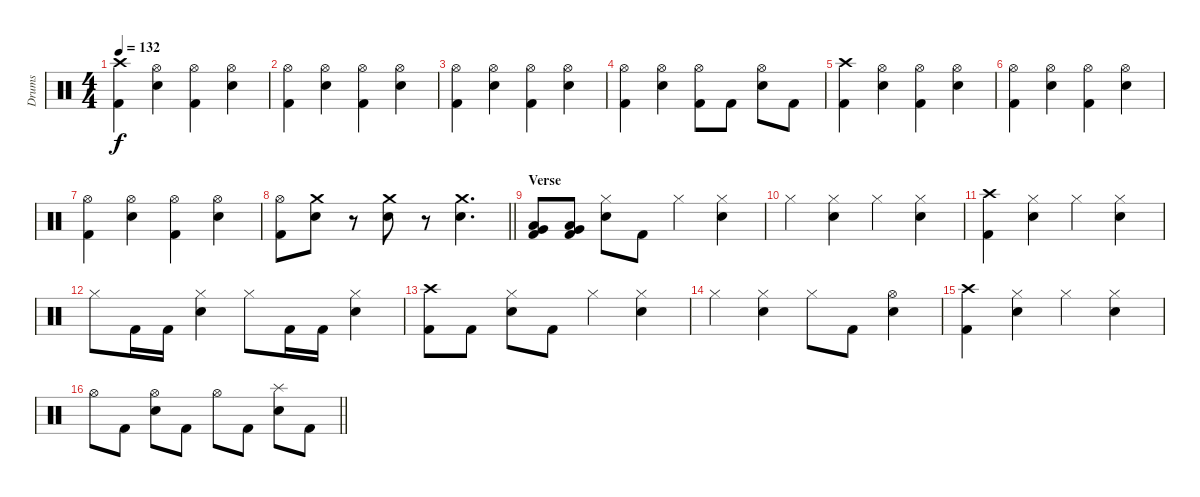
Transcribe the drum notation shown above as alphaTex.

\track ("Drums" "Drums") {instrument percussion}
\staff {score}
\articulation defaults
\ts (4 4)
\tempo 132
\clef neutral
\ks c
("Crash high (hit)" "Kick (hit) 2").4{dy f} ("Hi-Hat (open)" "Snare (hit) 2").4 ("Hi-Hat (open)" "Kick (hit) 2").4 ("Hi-Hat (open)" "Snare (hit) 2").4 |
("Hi-Hat (open)" "Kick (hit) 2").4 ("Hi-Hat (open)" "Snare (hit) 2").4 ("Hi-Hat (open)" "Kick (hit) 2").4 ("Hi-Hat (open)" "Snare (hit) 2").4 |
("Hi-Hat (open)" "Kick (hit) 2").4 ("Hi-Hat (open)" "Snare (hit) 2").4 ("Hi-Hat (open)" "Kick (hit) 2").4 ("Hi-Hat (open)" "Snare (hit) 2").4 |
("Hi-Hat (open)" "Kick (hit) 2").4 ("Hi-Hat (open)" "Snare (hit) 2").4 ("Hi-Hat (open)" "Kick (hit) 2").8 "Kick (hit) 2".8 ("Hi-Hat (open)" "Snare (hit) 2").8 "Kick (hit) 2".8 |
("Crash high (hit)" "Kick (hit) 2").4 ("Hi-Hat (open)" "Snare (hit) 2").4 ("Hi-Hat (open)" "Kick (hit) 2").4 ("Hi-Hat (open)" "Snare (hit) 2").4 |
("Hi-Hat (open)" "Kick (hit) 2").4 ("Hi-Hat (open)" "Snare (hit) 2").4 ("Hi-Hat (open)" "Kick (hit) 2").4 ("Hi-Hat (open)" "Snare (hit) 2").4 |
("Hi-Hat (open)" "Kick (hit) 2").4 ("Hi-Hat (open)" "Snare (hit) 2").4 ("Hi-Hat (open)" "Kick (hit) 2").4 ("Hi-Hat (open)" "Snare (hit) 2").4 |
\barLineRight lightlight
("Hi-Hat (open)" "Kick (hit) 2").8 ("Crash medium (hit)" "Snare (hit) 2").8 r.8 ("Crash medium (hit)" "Snare (hit) 2").8 r.8 ("Crash medium (hit)" "Snare (hit) 2").4{d} |
\section ("" "Verse")
("Very Low Tom (hit)" "Low Tom (hit)" "Kick (hit) 2").8 ("Very Low Tom (hit)" "Low Tom (hit)" "Kick (hit) 2").8 ("Hi-Hat (closed)" "Snare (hit) 2").8 "Kick (hit) 2".8 "Hi-Hat (closed)".4 ("Hi-Hat (closed)" "Snare (hit) 2").4 |
"Hi-Hat (closed)".4 ("Hi-Hat (closed)" "Snare (hit) 2").4 "Hi-Hat (closed)".4 ("Hi-Hat (closed)" "Snare (hit) 2").4 |
("Crash high (hit)" "Kick (hit) 2").4 ("Hi-Hat (closed)" "Snare (hit) 2").4 "Hi-Hat (closed)".4 ("Hi-Hat (closed)" "Snare (hit) 2").4 |
"Hi-Hat (closed)".8 "Kick (hit) 2".16 "Kick (hit) 2".16 ("Hi-Hat (closed)" "Snare (hit) 2").4 "Hi-Hat (closed)".8 "Kick (hit) 2".16 "Kick (hit) 2".16 ("Hi-Hat (closed)" "Snare (hit) 2").4 |
("Crash high (hit)" "Kick (hit) 2").8 "Kick (hit) 2".8 ("Hi-Hat (closed)" "Snare (hit) 2").8 "Kick (hit) 2".8 "Hi-Hat (closed)".4 ("Hi-Hat (closed)" "Snare (hit) 2").4 |
"Hi-Hat (closed)".4 ("Hi-Hat (closed)" "Snare (hit) 2").4 "Hi-Hat (closed)".8 "Kick (hit) 2".8 ("Hi-Hat (open)" "Snare (hit) 2").4 |
("Crash high (hit)" "Kick (hit) 2").4 ("Hi-Hat (closed)" "Snare (hit) 2").4 "Hi-Hat (closed)".4 ("Hi-Hat (closed)" "Snare (hit) 2").4 |
\barLineRight lightlight "Hi-Hat (open)".8 "Kick (hit) 2".8
("Hi-Hat (open)" "Snare (hit) 2").8 "Kick (hit) 2".8 "Hi-Hat (open)".8 "Kick (hit) 2".8 ("Splash (hit)" "Snare (hit) 2").8 "Kick (hit) 2".8
